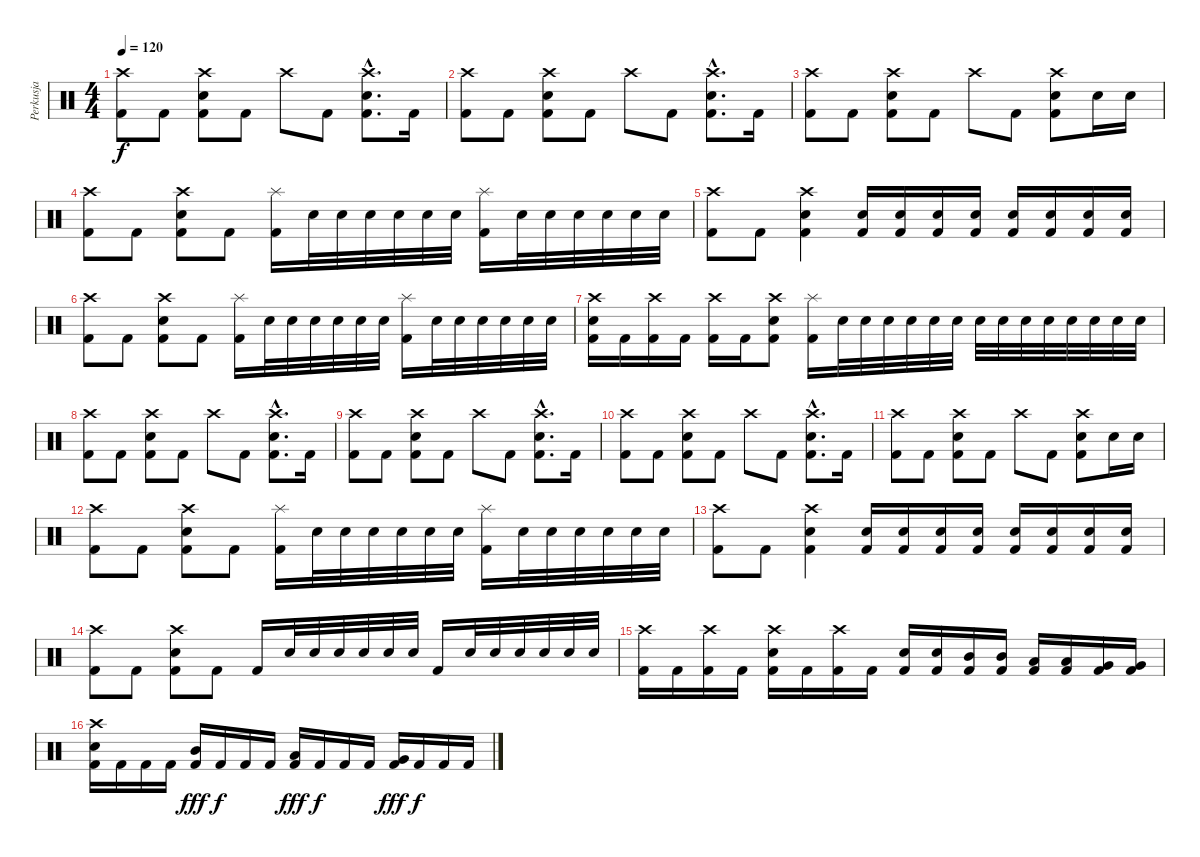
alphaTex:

\track ("Perkusja" "Perkusja") {instrument percussion}
\staff {score}
\articulation defaults
\ts (4 4)
\tempo 120
\clef neutral
\ks c
("Crash high (hit)" "Kick (hit) 2").8{dy f} "Kick (hit) 2".8 ("Crash high (hit)" "Electric Snare (hit)" "Kick (hit) 2").8 "Kick (hit) 2".8 "Crash high (hit)".8 "Kick (hit) 2".8 ("Crash high (hit)"{hac} "Electric Snare (hit)"{hac} "Kick (hit) 2"{hac}).8{d} "Kick (hit) 2".16 |
("Crash high (hit)" "Kick (hit) 2").8 "Kick (hit) 2".8 ("Crash high (hit)" "Electric Snare (hit)" "Kick (hit) 2").8 "Kick (hit) 2".8 "Crash high (hit)".8 "Kick (hit) 2".8 ("Crash high (hit)"{hac} "Electric Snare (hit)"{hac} "Kick (hit) 2"{hac}).8{d} "Kick (hit) 2".16 |
("Crash high (hit)" "Kick (hit) 2").8 "Kick (hit) 2".8 ("Crash high (hit)" "Electric Snare (hit)" "Kick (hit) 2").8 "Kick (hit) 2".8 "Crash high (hit)".8 "Kick (hit) 2".8 ("Crash high (hit)" "Electric Snare (hit)" "Kick (hit) 2").8 "Electric Snare (hit)".16 "Electric Snare (hit)".16 |
("Crash high (hit)" "Kick (hit) 2").8 "Kick (hit) 2".8 ("Crash high (hit)" "Electric Snare (hit)" "Kick (hit) 2").8 "Kick (hit) 2".8 ("Splash (hit)" "Kick (hit) 2").16 "Electric Snare (hit)".32 "Electric Snare (hit)".32 "Electric Snare (hit)".32 "Electric Snare (hit)".32 "Electric Snare (hit)".32 "Electric Snare (hit)".32 ("Splash (hit)" "Kick (hit) 2").16 "Electric Snare (hit)".32 "Electric Snare (hit)".32 "Electric Snare (hit)".32 "Electric Snare (hit)".32 "Electric Snare (hit)".32 "Electric Snare (hit)".32 |
("Crash high (hit)" "Kick (hit) 2").8 "Kick (hit) 2".8 ("Crash high (hit)" "Electric Snare (hit)" "Kick (hit) 2").4 ("Electric Snare (hit)" "Kick (hit) 2").16 ("Electric Snare (hit)" "Kick (hit) 2").16 ("Electric Snare (hit)" "Kick (hit) 2").16 ("Electric Snare (hit)" "Kick (hit) 2").16 ("Electric Snare (hit)" "Kick (hit) 2").16 ("Electric Snare (hit)" "Kick (hit) 2").16 ("Electric Snare (hit)" "Kick (hit) 2").16 ("Electric Snare (hit)" "Kick (hit) 2").16 |
("Crash high (hit)" "Kick (hit) 2").8 "Kick (hit) 2".8 ("Crash high (hit)" "Electric Snare (hit)" "Kick (hit) 2").8 "Kick (hit) 2".8 ("Splash (hit)" "Kick (hit) 2").16 "Electric Snare (hit)".32 "Electric Snare (hit)".32 "Electric Snare (hit)".32 "Electric Snare (hit)".32 "Electric Snare (hit)".32 "Electric Snare (hit)".32 ("Splash (hit)" "Kick (hit) 2").16 "Electric Snare (hit)".32 "Electric Snare (hit)".32 "Electric Snare (hit)".32 "Electric Snare (hit)".32 "Electric Snare (hit)".32 "Electric Snare (hit)".32 |
("Crash high (hit)" "Electric Snare (hit)" "Kick (hit) 2").16 "Kick (hit) 2".16 ("Crash high (hit)" "Kick (hit) 2").16 "Kick (hit) 2".16 ("Crash high (hit)" "Kick (hit) 2").16 "Kick (hit) 2".16 ("Crash high (hit)" "Electric Snare (hit)" "Kick (hit) 2").8 ("Splash (hit)" "Kick (hit) 2").16 "Electric Snare (hit)".32 "Electric Snare (hit)".32 "Electric Snare (hit)".32 "Electric Snare (hit)".32 "Electric Snare (hit)".32 "Electric Snare (hit)".32 "Electric Snare (hit)".32 "Electric Snare (hit)".32 "Electric Snare (hit)".32 "Electric Snare (hit)".32 "Electric Snare (hit)".32 "Electric Snare (hit)".32 "Electric Snare (hit)".32 "Electric Snare (hit)".32 |
("Crash high (hit)" "Kick (hit) 2").8 "Kick (hit) 2".8 ("Crash high (hit)" "Electric Snare (hit)" "Kick (hit) 2").8 "Kick (hit) 2".8 "Crash high (hit)".8 "Kick (hit) 2".8 ("Crash high (hit)"{hac} "Electric Snare (hit)"{hac} "Kick (hit) 2"{hac}).8{d} "Kick (hit) 2".16 |
("Crash high (hit)" "Kick (hit) 2").8 "Kick (hit) 2".8 ("Crash high (hit)" "Electric Snare (hit)" "Kick (hit) 2").8 "Kick (hit) 2".8 "Crash high (hit)".8 "Kick (hit) 2".8 ("Crash high (hit)"{hac} "Electric Snare (hit)"{hac} "Kick (hit) 2"{hac}).8{d} "Kick (hit) 2".16 |
("Crash high (hit)" "Kick (hit) 2").8 "Kick (hit) 2".8 ("Crash high (hit)" "Electric Snare (hit)" "Kick (hit) 2").8 "Kick (hit) 2".8 "Crash high (hit)".8 "Kick (hit) 2".8 ("Crash high (hit)"{hac} "Electric Snare (hit)"{hac} "Kick (hit) 2"{hac}).8{d} "Kick (hit) 2".16 |
("Crash high (hit)" "Kick (hit) 2").8 "Kick (hit) 2".8 ("Crash high (hit)" "Electric Snare (hit)" "Kick (hit) 2").8 "Kick (hit) 2".8 "Crash high (hit)".8 "Kick (hit) 2".8 ("Crash high (hit)" "Electric Snare (hit)" "Kick (hit) 2").8 "Electric Snare (hit)".16 "Electric Snare (hit)".16 |
("Crash high (hit)" "Kick (hit) 2").8 "Kick (hit) 2".8 ("Crash high (hit)" "Electric Snare (hit)" "Kick (hit) 2").8 "Kick (hit) 2".8 ("Splash (hit)" "Kick (hit) 2").16 "Electric Snare (hit)".32 "Electric Snare (hit)".32 "Electric Snare (hit)".32 "Electric Snare (hit)".32 "Electric Snare (hit)".32 "Electric Snare (hit)".32 ("Splash (hit)" "Kick (hit) 2").16 "Electric Snare (hit)".32 "Electric Snare (hit)".32 "Electric Snare (hit)".32 "Electric Snare (hit)".32 "Electric Snare (hit)".32 "Electric Snare (hit)".32 |
("Crash high (hit)" "Kick (hit) 2").8 "Kick (hit) 2".8 ("Crash high (hit)" "Electric Snare (hit)" "Kick (hit) 2").4 ("Electric Snare (hit)" "Kick (hit) 2").16 ("Electric Snare (hit)" "Kick (hit) 2").16 ("Electric Snare (hit)" "Kick (hit) 2").16 ("Electric Snare (hit)" "Kick (hit) 2").16 ("Electric Snare (hit)" "Kick (hit) 2").16 ("Electric Snare (hit)" "Kick (hit) 2").16 ("Electric Snare (hit)" "Kick (hit) 2").16 ("Electric Snare (hit)" "Kick (hit) 2").16 |
("Crash high (hit)" "Kick (hit) 2").8 "Kick (hit) 2".8 ("Crash high (hit)" "Electric Snare (hit)" "Kick (hit) 2").8 "Kick (hit) 2".8 "Kick (hit) 2".16 "Electric Snare (hit)".32 "Electric Snare (hit)".32 "Electric Snare (hit)".32 "Electric Snare (hit)".32 "Electric Snare (hit)".32 "Electric Snare (hit)".32 "Kick (hit) 2".16 "Electric Snare (hit)".32 "Electric Snare (hit)".32 "Electric Snare (hit)".32 "Electric Snare (hit)".32 "Electric Snare (hit)".32 "Electric Snare (hit)".32 |
("Crash high (hit)" "Kick (hit) 2").16 "Kick (hit) 2".16 ("Crash high (hit)" "Kick (hit) 2").16 "Kick (hit) 2".16 ("Crash high (hit)" "Electric Snare (hit)" "Kick (hit) 2").16 "Kick (hit) 2".16 ("Crash high (hit)" "Kick (hit) 2").16 "Kick (hit) 2".16 ("Electric Snare (hit)" "Kick (hit) 2").16 ("Electric Snare (hit)" "Kick (hit) 2").16 ("Mid Tom (hit)" "Kick (hit) 2").16 ("Mid Tom (hit)" "Kick (hit) 2").16 ("Low Tom (hit)" "Kick (hit) 2").16 ("Low Tom (hit)" "Kick (hit) 2").16 ("Very Low Tom (hit)" "Kick (hit) 2").16 ("Very Low Tom (hit)" "Kick (hit) 2").16 |
("Crash high (hit)" "Electric Snare (hit)" "Kick (hit) 2").16 "Kick (hit) 2".16 "Kick (hit) 2".16 "Kick (hit) 2".16 ("Mid Tom (hit)" "Kick (hit) 2").16{dy fff} "Kick (hit) 2".16{dy f} "Kick (hit) 2".16 "Kick (hit) 2".16 ("Low Tom (hit)" "Kick (hit) 2").16{dy fff} "Kick (hit) 2".16{dy f} "Kick (hit) 2".16 "Kick (hit) 2".16 ("Very Low Tom (hit)" "Kick (hit) 2").16{dy fff} "Kick (hit) 2".16{dy f} "Kick (hit) 2".16 "Kick (hit) 2".16
